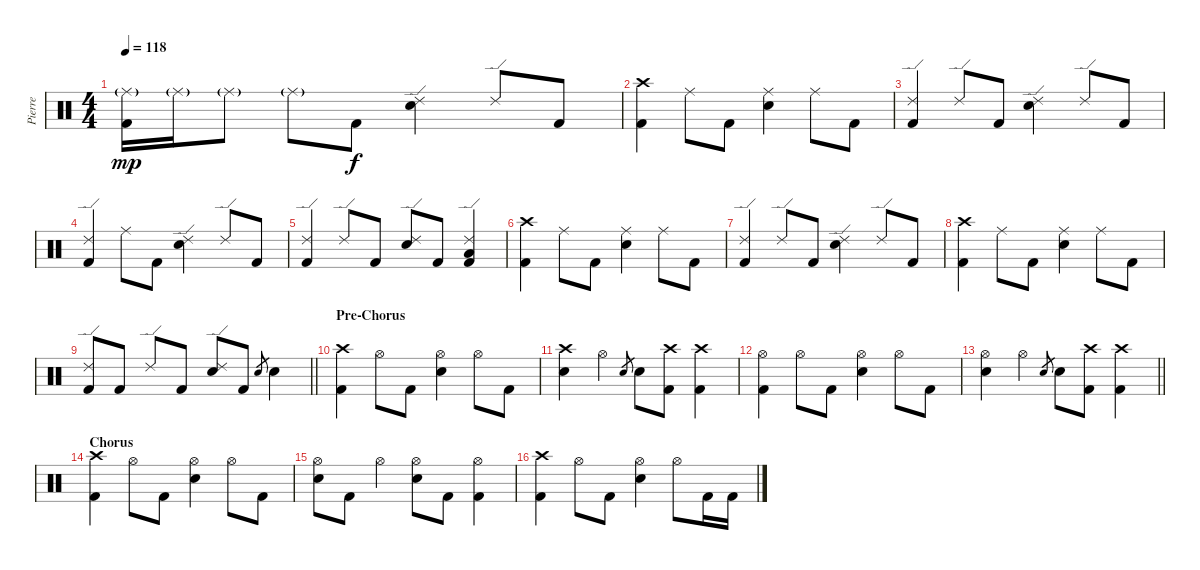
\track ("Pierre" "Pierre") {instrument percussion}
\staff {score}
\articulation defaults
\ts (4 4)
\tempo 118
\clef neutral
\ks c
("Ride (middle)"{g} "Kick (hit) 2").16{dy mp} "Ride (middle)"{g}.16 "Ride (middle)"{g}.8 "Ride (middle)"{g}.8 "Kick (hit) 2".8{dy f} ("Ride (edge) 2" "Snare (hit) 2").4 "Ride (edge) 2".8 "Kick (hit) 2".8 |
("Crash high (hit)" "Kick (hit) 2").4 "Ride (middle)".8 "Kick (hit) 2".8 ("Ride (middle)" "Snare (hit) 2").4 "Ride (middle)".8 "Kick (hit) 2".8 |
("Ride (edge) 2" "Kick (hit) 2").4 "Ride (edge) 2".8 "Kick (hit) 2".8 ("Ride (edge) 2" "Snare (hit) 2").4 "Ride (edge) 2".8 "Kick (hit) 2".8 |
("Ride (edge) 2" "Kick (hit) 2").4 "Ride (middle)".8 "Kick (hit) 2".8 ("Ride (edge) 2" "Snare (hit) 2").4 "Ride (edge) 2".8 "Kick (hit) 2".8 |
("Ride (edge) 2" "Kick (hit) 2").4 "Ride (edge) 2".8 "Kick (hit) 2".8 ("Ride (edge) 2" "Snare (hit) 2").8 "Kick (hit) 2".8 ("Ride (edge) 2" "Low Tom (hit)" "Kick (hit) 2").4 |
("Crash high (hit)" "Kick (hit) 2").4 "Ride (middle)".8 "Kick (hit) 2".8 ("Ride (middle)" "Snare (hit) 2").4 "Ride (middle)".8 "Kick (hit) 2".8 |
("Ride (edge) 2" "Kick (hit) 2").4 "Ride (edge) 2".8 "Kick (hit) 2".8 ("Ride (edge) 2" "Snare (hit) 2").4 "Ride (edge) 2".8 "Kick (hit) 2".8 |
("Crash high (hit)" "Kick (hit) 2").4 "Ride (middle)".8 "Kick (hit) 2".8 ("Ride (middle)" "Snare (hit) 2").4 "Ride (middle)".8 "Kick (hit) 2".8 |
\barLineRight lightlight
("Ride (edge) 2" "Kick (hit) 2").8 "Kick (hit) 2".8 "Ride (edge) 2".8 "Kick (hit) 2".8 ("Ride (edge) 2" "Electric Snare (hit)").8 "Kick (hit) 2".8 "Snare (hit) 2".8{gr} "Snare (hit) 2".4 |
\section ("" "Pre-Chorus")
("Crash high (hit)" "Kick (hit) 2").4 "Hi-Hat (open)".8 "Kick (hit) 2".8 ("Hi-Hat (open)" "Snare (hit) 2").4 "Hi-Hat (open)".8 "Kick (hit) 2".8 |
("Crash high (hit)" "Snare (hit) 2").4 "Hi-Hat (open)".4 "Snare (hit) 2".8{gr} "Snare (hit) 2".8 ("Crash high (hit)" "Kick (hit) 2").8 ("Crash high (hit)" "Kick (hit) 2").4 |
("Hi-Hat (open)" "Kick (hit) 2").4 "Hi-Hat (open)".8 "Kick (hit) 2".8 ("Hi-Hat (open)" "Snare (hit) 2").4 "Hi-Hat (open)".8 "Kick (hit) 2".8 |
\barLineRight lightlight
("Hi-Hat (open)" "Snare (hit) 2").4 "Hi-Hat (open)".4 "Snare (hit) 2".8{gr} "Snare (hit) 2".8 ("Crash high (hit)" "Kick (hit) 2").8 ("Crash high (hit)" "Kick (hit) 2").4 |
\section ("" "Chorus")
("Crash high (hit)" "Kick (hit) 2").4 "Hi-Hat (open)".8 "Kick (hit) 2".8 ("Hi-Hat (open)" "Snare (hit) 2").4 "Hi-Hat (open)".8 "Kick (hit) 2".8 |
("Hi-Hat (open)" "Snare (hit) 2").8 "Kick (hit) 2".8 "Hi-Hat (open)".4 ("Hi-Hat (open)" "Snare (hit) 2").8 "Kick (hit) 2".8 ("Hi-Hat (open)" "Kick (hit) 2").4 |
("Crash high (hit)" "Kick (hit) 2").4 "Hi-Hat (open)".8 "Kick (hit) 2".8 ("Hi-Hat (open)" "Snare (hit) 2").4 "Hi-Hat (open)".8 "Kick (hit) 2".16 "Kick (hit) 2".16
